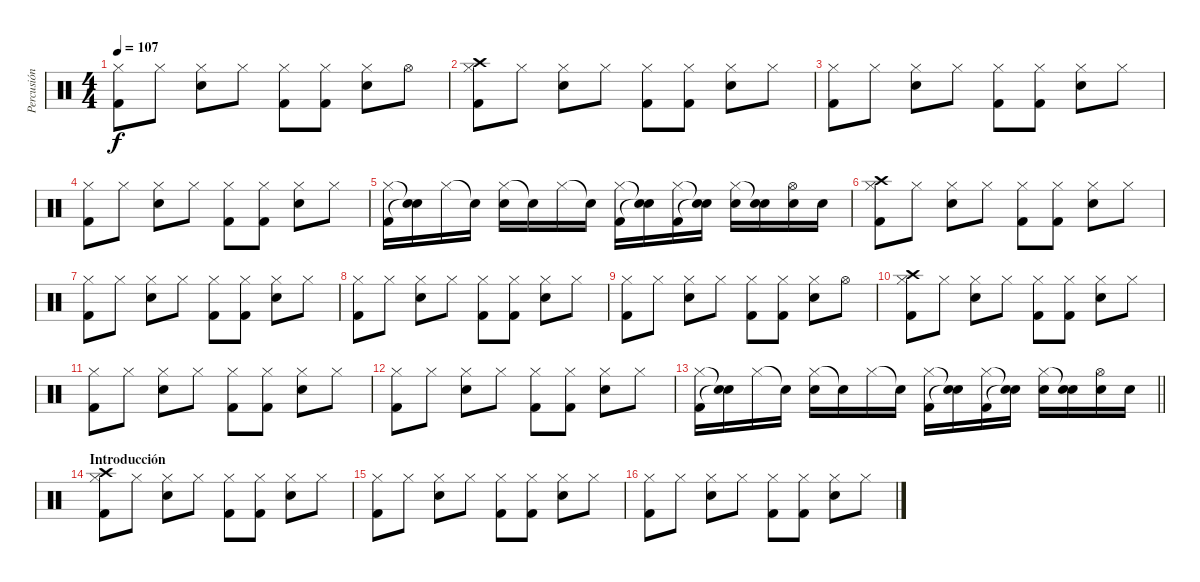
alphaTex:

\track ("Percusión" "Percusión") {instrument percussion}
\staff {score}
\articulation defaults
\ts (4 4)
\tempo 107
\clef neutral
\ks c
("Hi-Hat (closed)" "Kick (hit) 2").8{dy f} "Hi-Hat (closed)".8 ("Hi-Hat (closed)" "Snare (hit) 2").8 "Hi-Hat (closed)".8 ("Hi-Hat (closed)" "Kick (hit) 2").8 ("Hi-Hat (closed)" "Kick (hit) 2").8 ("Hi-Hat (closed)" "Snare (hit) 2").8 "Hi-Hat (open)".8 |
("Hi-Hat (closed)" "Kick (hit) 2" "Crash high (hit)").8 "Hi-Hat (closed)".8 ("Hi-Hat (closed)" "Snare (hit) 2").8 "Hi-Hat (closed)".8 ("Hi-Hat (closed)" "Kick (hit) 2").8 ("Hi-Hat (closed)" "Kick (hit) 2").8 ("Hi-Hat (closed)" "Snare (hit) 2").8 "Hi-Hat (closed)".8 |
("Hi-Hat (closed)" "Kick (hit) 2").8 "Hi-Hat (closed)".8 ("Hi-Hat (closed)" "Snare (hit) 2").8 "Hi-Hat (closed)".8 ("Hi-Hat (closed)" "Kick (hit) 2").8 ("Hi-Hat (closed)" "Kick (hit) 2").8 ("Hi-Hat (closed)" "Snare (hit) 2").8 "Hi-Hat (closed)".8 |
("Hi-Hat (closed)" "Kick (hit) 2").8 "Hi-Hat (closed)".8 ("Hi-Hat (closed)" "Snare (hit) 2").8 "Hi-Hat (closed)".8 ("Hi-Hat (closed)" "Kick (hit) 2").8 ("Hi-Hat (closed)" "Kick (hit) 2").8 ("Hi-Hat (closed)" "Snare (hit) 2").8 "Hi-Hat (closed)".8 |
("Hi-Hat (closed)" "Kick (hit) 2").16 ("Snare (hit)"{t} "Snare (hit)"{t}).16 "Hi-Hat (closed)".16 "Snare (hit)"{t}.16 ("Hi-Hat (closed)" "Snare (hit) 2").16 "Snare (hit)"{t}.16 "Hi-Hat (closed)".16 "Snare (hit)"{t}.16 ("Hi-Hat (closed)" "Kick (hit) 2").16 ("Snare (hit)"{t} "Snare (hit)"{t}).16 ("Hi-Hat (closed)" "Kick (hit) 2").16 ("Snare (hit)"{t} "Snare (hit)"{t}).16 ("Hi-Hat (closed)" "Snare (hit) 2").16 ("Snare (hit)"{t} "Snare (hit) 2").16 ("Hi-Hat (open)" "Snare (hit) 2").16 "Snare (hit) 2".16 |
("Hi-Hat (closed)" "Kick (hit) 2" "Crash high (hit)").8 "Hi-Hat (closed)".8 ("Hi-Hat (closed)" "Snare (hit) 2").8 "Hi-Hat (closed)".8 ("Hi-Hat (closed)" "Kick (hit) 2").8 ("Hi-Hat (closed)" "Kick (hit) 2").8 ("Hi-Hat (closed)" "Snare (hit) 2").8 "Hi-Hat (closed)".8 |
("Hi-Hat (closed)" "Kick (hit) 2").8 "Hi-Hat (closed)".8 ("Hi-Hat (closed)" "Snare (hit) 2").8 "Hi-Hat (closed)".8 ("Hi-Hat (closed)" "Kick (hit) 2").8 ("Hi-Hat (closed)" "Kick (hit) 2").8 ("Hi-Hat (closed)" "Snare (hit) 2").8 "Hi-Hat (closed)".8 |
("Hi-Hat (closed)" "Kick (hit) 2").8 "Hi-Hat (closed)".8 ("Hi-Hat (closed)" "Snare (hit) 2").8 "Hi-Hat (closed)".8 ("Hi-Hat (closed)" "Kick (hit) 2").8 ("Hi-Hat (closed)" "Kick (hit) 2").8 ("Hi-Hat (closed)" "Snare (hit) 2").8 "Hi-Hat (closed)".8 |
("Hi-Hat (closed)" "Kick (hit) 2").8 "Hi-Hat (closed)".8 ("Hi-Hat (closed)" "Snare (hit) 2").8 "Hi-Hat (closed)".8 ("Hi-Hat (closed)" "Kick (hit) 2").8 ("Hi-Hat (closed)" "Kick (hit) 2").8 ("Hi-Hat (closed)" "Snare (hit) 2").8 "Hi-Hat (open)".8 |
("Hi-Hat (closed)" "Kick (hit) 2" "Crash high (hit)").8 "Hi-Hat (closed)".8 ("Hi-Hat (closed)" "Snare (hit) 2").8 "Hi-Hat (closed)".8 ("Hi-Hat (closed)" "Kick (hit) 2").8 ("Hi-Hat (closed)" "Kick (hit) 2").8 ("Hi-Hat (closed)" "Snare (hit) 2").8 "Hi-Hat (closed)".8 |
("Hi-Hat (closed)" "Kick (hit) 2").8 "Hi-Hat (closed)".8 ("Hi-Hat (closed)" "Snare (hit) 2").8 "Hi-Hat (closed)".8 ("Hi-Hat (closed)" "Kick (hit) 2").8 ("Hi-Hat (closed)" "Kick (hit) 2").8 ("Hi-Hat (closed)" "Snare (hit) 2").8 "Hi-Hat (closed)".8 |
("Hi-Hat (closed)" "Kick (hit) 2").8 "Hi-Hat (closed)".8 ("Hi-Hat (closed)" "Snare (hit) 2").8 "Hi-Hat (closed)".8 ("Hi-Hat (closed)" "Kick (hit) 2").8 ("Hi-Hat (closed)" "Kick (hit) 2").8 ("Hi-Hat (closed)" "Snare (hit) 2").8 "Hi-Hat (closed)".8 |
\barLineRight lightlight
("Hi-Hat (closed)" "Kick (hit) 2").16 ("Snare (hit)"{t} "Snare (hit)"{t}).16 "Hi-Hat (closed)".16 "Snare (hit)"{t}.16 ("Hi-Hat (closed)" "Snare (hit) 2").16 "Snare (hit)"{t}.16 "Hi-Hat (closed)".16 "Snare (hit)"{t}.16 ("Hi-Hat (closed)" "Kick (hit) 2").16 ("Snare (hit)"{t} "Snare (hit)"{t}).16 ("Hi-Hat (closed)" "Kick (hit) 2").16 ("Snare (hit)"{t} "Snare (hit)"{t}).16 ("Hi-Hat (closed)" "Snare (hit) 2").16 ("Snare (hit)"{t} "Snare (hit) 2").16 ("Hi-Hat (open)" "Snare (hit) 2").16 "Snare (hit) 2".16 |
\section ("" "Introducción")
("Hi-Hat (closed)" "Kick (hit) 2" "Crash high (hit)").8 "Hi-Hat (closed)".8 ("Hi-Hat (closed)" "Snare (hit) 2").8 "Hi-Hat (closed)".8 ("Hi-Hat (closed)" "Kick (hit) 2").8 ("Hi-Hat (closed)" "Kick (hit) 2").8 ("Hi-Hat (closed)" "Snare (hit) 2").8 "Hi-Hat (closed)".8 |
("Hi-Hat (closed)" "Kick (hit) 2").8 "Hi-Hat (closed)".8 ("Hi-Hat (closed)" "Snare (hit) 2").8 "Hi-Hat (closed)".8 ("Hi-Hat (closed)" "Kick (hit) 2").8 ("Hi-Hat (closed)" "Kick (hit) 2").8 ("Hi-Hat (closed)" "Snare (hit) 2").8 "Hi-Hat (closed)".8 |
("Hi-Hat (closed)" "Kick (hit) 2").8 "Hi-Hat (closed)".8 ("Hi-Hat (closed)" "Snare (hit) 2").8 "Hi-Hat (closed)".8 ("Hi-Hat (closed)" "Kick (hit) 2").8 ("Hi-Hat (closed)" "Kick (hit) 2").8 ("Hi-Hat (closed)" "Snare (hit) 2").8 "Hi-Hat (closed)".8
